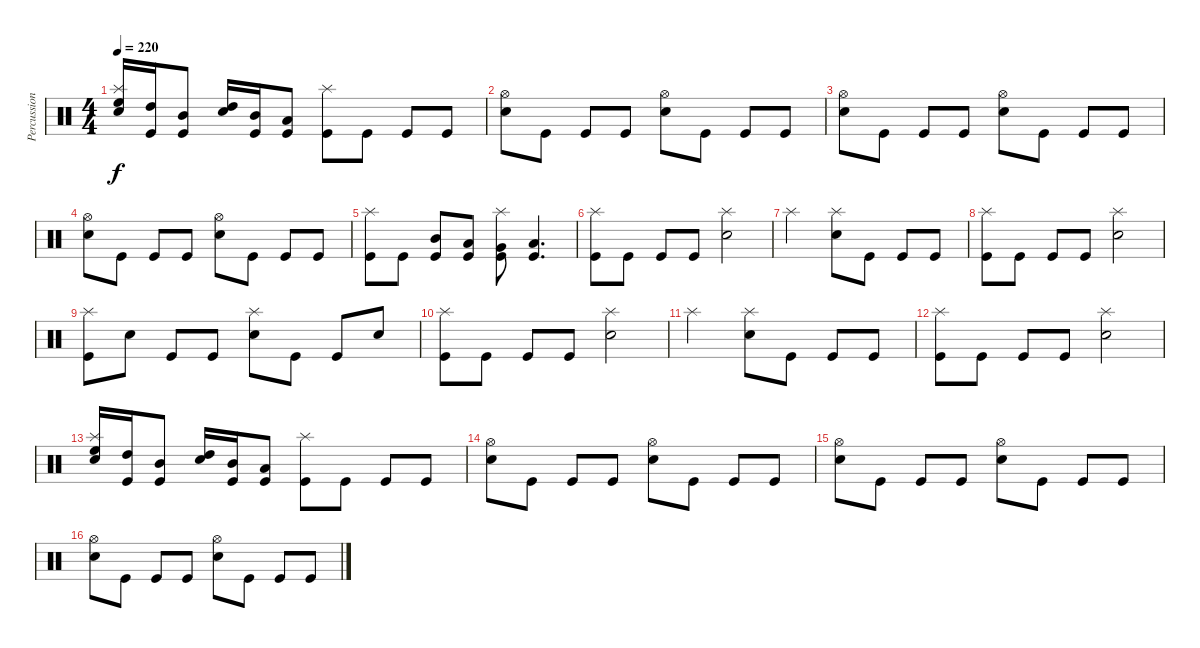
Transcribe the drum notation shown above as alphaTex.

\track ("Percussion" "Percussion") {instrument percussion}
\staff {score}
\articulation defaults
\ts (4 4)
\tempo 220
\clef neutral
\ks c
("Snare (hit) 2" "Splash (hit)" "High Floor Tom (hit)").16{dy f} ("Kick (hit)" "High Tom (hit)").16 ("Kick (hit)" "Mid Tom (hit)").8 ("Snare (hit) 2" "High Tom (hit)").16 ("Kick (hit)" "Mid Tom (hit)").16 ("Kick (hit)" "Low Tom (hit)").8 ("Kick (hit)" "Splash (hit)").8 "Kick (hit)".8 "Kick (hit)".8 "Kick (hit)".8 |
("Snare (hit) 2" "Hi-Hat (open)").8 "Kick (hit)".8 "Kick (hit)".8 "Kick (hit)".8 ("Snare (hit) 2" "Hi-Hat (open)").8 "Kick (hit)".8 "Kick (hit)".8 "Kick (hit)".8 |
("Snare (hit) 2" "Hi-Hat (open)").8 "Kick (hit)".8 "Kick (hit)".8 "Kick (hit)".8 ("Snare (hit) 2" "Hi-Hat (open)").8 "Kick (hit)".8 "Kick (hit)".8 "Kick (hit)".8 |
("Snare (hit) 2" "Hi-Hat (open)").8 "Kick (hit)".8 "Kick (hit)".8 "Kick (hit)".8 ("Snare (hit) 2" "Hi-Hat (open)").8 "Kick (hit)".8 "Kick (hit)".8 "Kick (hit)".8 |
("Kick (hit)" "Splash (hit)").8 "Kick (hit)".8 ("Kick (hit)" "Mid Tom (hit)").8 ("Kick (hit)" "Low Tom (hit)").8 ("Kick (hit)" "Splash (hit)" "Very Low Tom (hit)").8 ("Kick (hit)" "Low Floor Tom (hit)").4{d} |
("Kick (hit)" "Splash (hit)").8 "Kick (hit)".8 "Kick (hit)".8 "Kick (hit)".8 ("Snare (hit) 2" "Splash (hit)").2 |
"Splash (hit)".2 ("Snare (hit) 2" "Splash (hit)").8 "Kick (hit)".8 "Kick (hit)".8 "Kick (hit)".8 |
("Kick (hit)" "Splash (hit)").8 "Kick (hit)".8 "Kick (hit)".8 "Kick (hit)".8 ("Snare (hit) 2" "Splash (hit)").2 |
("Kick (hit)" "Splash (hit)").8 "Snare (hit) 2".8 "Kick (hit)".8 "Kick (hit)".8 ("Snare (hit) 2" "Splash (hit)").8 "Kick (hit)".8 "Kick (hit)".8 "Snare (hit) 2".8 |
("Kick (hit)" "Splash (hit)").8 "Kick (hit)".8 "Kick (hit)".8 "Kick (hit)".8 ("Snare (hit) 2" "Splash (hit)").2 |
"Splash (hit)".2 ("Snare (hit) 2" "Splash (hit)").8 "Kick (hit)".8 "Kick (hit)".8 "Kick (hit)".8 |
("Kick (hit)" "Splash (hit)").8 "Kick (hit)".8 "Kick (hit)".8 "Kick (hit)".8 ("Snare (hit) 2" "Splash (hit)").2 |
("Snare (hit) 2" "Splash (hit)" "High Floor Tom (hit)").16 ("Kick (hit)" "High Tom (hit)").16 ("Kick (hit)" "Mid Tom (hit)").8 ("Snare (hit) 2" "High Tom (hit)").16 ("Kick (hit)" "Mid Tom (hit)").16 ("Kick (hit)" "Low Tom (hit)").8 ("Kick (hit)" "Splash (hit)").8 "Kick (hit)".8 "Kick (hit)".8 "Kick (hit)".8 |
("Snare (hit) 2" "Hi-Hat (open)").8 "Kick (hit)".8 "Kick (hit)".8 "Kick (hit)".8 ("Snare (hit) 2" "Hi-Hat (open)").8 "Kick (hit)".8 "Kick (hit)".8 "Kick (hit)".8 |
("Snare (hit) 2" "Hi-Hat (open)").8 "Kick (hit)".8 "Kick (hit)".8 "Kick (hit)".8 ("Snare (hit) 2" "Hi-Hat (open)").8 "Kick (hit)".8 "Kick (hit)".8 "Kick (hit)".8 |
("Snare (hit) 2" "Hi-Hat (open)").8 "Kick (hit)".8 "Kick (hit)".8 "Kick (hit)".8 ("Snare (hit) 2" "Hi-Hat (open)").8 "Kick (hit)".8 "Kick (hit)".8 "Kick (hit)".8
